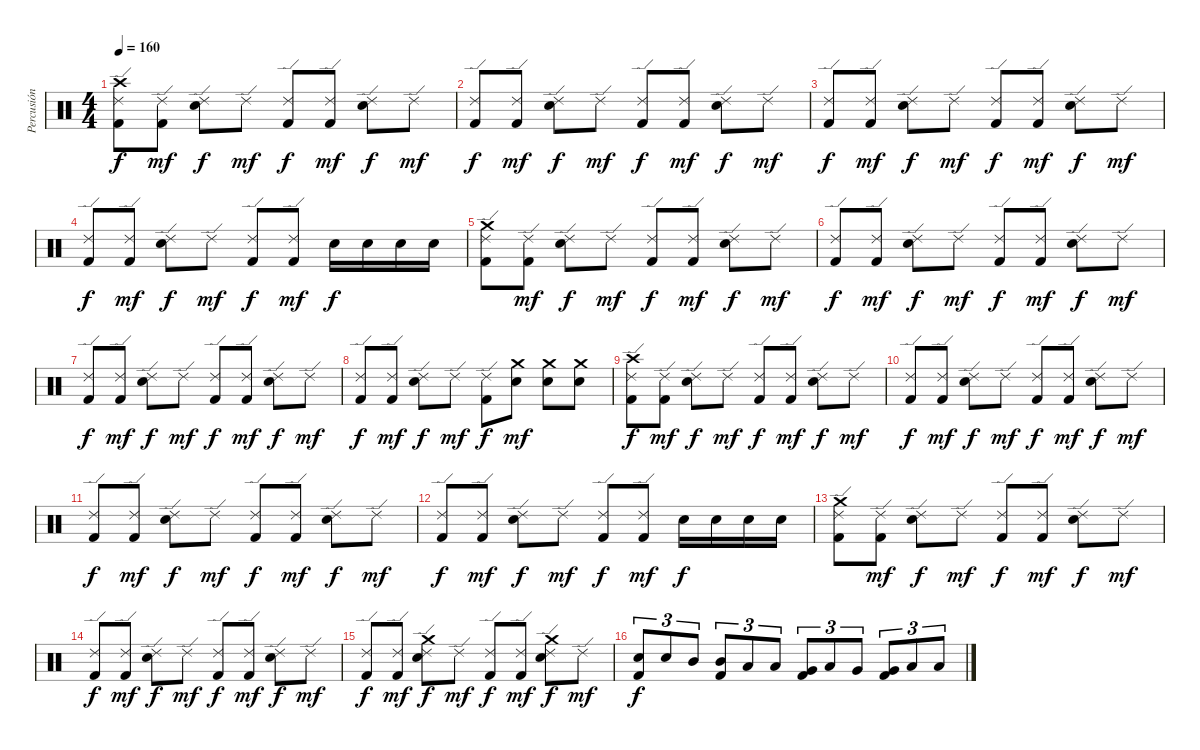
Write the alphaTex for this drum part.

\track ("Percusión" "Percusión") {instrument percussion}
\staff {score}
\articulation defaults
\ts (4 4)
\tempo 160
\clef neutral
\ks c
("Crash high (hit)" "Ride (edge) 2" "Kick (hit) 2").8{dy f} ("Ride (edge) 2" "Kick (hit) 2").8{dy mf} ("Ride (edge) 2" "Electric Snare (hit)").8{dy f} "Ride (edge) 2".8{dy mf} ("Ride (edge) 2" "Kick (hit) 2").8{dy f} ("Ride (edge) 2" "Kick (hit) 2").8{dy mf} ("Ride (edge) 2" "Electric Snare (hit)").8{dy f} "Ride (edge) 2".8{dy mf} |
("Ride (edge) 2" "Kick (hit) 2").8{dy f} ("Ride (edge) 2" "Kick (hit) 2").8{dy mf} ("Ride (edge) 2" "Electric Snare (hit)").8{dy f} "Ride (edge) 2".8{dy mf} ("Ride (edge) 2" "Kick (hit) 2").8{dy f} ("Ride (edge) 2" "Kick (hit) 2").8{dy mf} ("Ride (edge) 2" "Electric Snare (hit)").8{dy f} "Ride (edge) 2".8{dy mf} |
("Ride (edge) 2" "Kick (hit) 2").8{dy f} ("Ride (edge) 2" "Kick (hit) 2").8{dy mf} ("Ride (edge) 2" "Electric Snare (hit)").8{dy f} "Ride (edge) 2".8{dy mf} ("Ride (edge) 2" "Kick (hit) 2").8{dy f} ("Ride (edge) 2" "Kick (hit) 2").8{dy mf} ("Ride (edge) 2" "Electric Snare (hit)").8{dy f} "Ride (edge) 2".8{dy mf} |
("Ride (edge) 2" "Kick (hit) 2").8{dy f} ("Ride (edge) 2" "Kick (hit) 2").8{dy mf} ("Ride (edge) 2" "Electric Snare (hit)").8{dy f} "Ride (edge) 2".8{dy mf} ("Ride (edge) 2" "Kick (hit) 2").8{dy f} ("Ride (edge) 2" "Kick (hit) 2").8{dy mf} "Electric Snare (hit)".16{dy f} "Electric Snare (hit)".16 "Electric Snare (hit)".16 "Electric Snare (hit)".16 |
("Crash medium (hit)" "Ride (edge) 2" "Kick (hit) 2").8 ("Ride (edge) 2" "Kick (hit) 2").8{dy mf} ("Ride (edge) 2" "Electric Snare (hit)").8{dy f} "Ride (edge) 2".8{dy mf} ("Ride (edge) 2" "Kick (hit) 2").8{dy f} ("Ride (edge) 2" "Kick (hit) 2").8{dy mf} ("Ride (edge) 2" "Electric Snare (hit)").8{dy f} "Ride (edge) 2".8{dy mf} |
("Ride (edge) 2" "Kick (hit) 2").8{dy f} ("Ride (edge) 2" "Kick (hit) 2").8{dy mf} ("Ride (edge) 2" "Electric Snare (hit)").8{dy f} "Ride (edge) 2".8{dy mf} ("Ride (edge) 2" "Kick (hit) 2").8{dy f} ("Ride (edge) 2" "Kick (hit) 2").8{dy mf} ("Ride (edge) 2" "Electric Snare (hit)").8{dy f} "Ride (edge) 2".8{dy mf} |
("Ride (edge) 2" "Kick (hit) 2").8{dy f} ("Ride (edge) 2" "Kick (hit) 2").8{dy mf} ("Ride (edge) 2" "Electric Snare (hit)").8{dy f} "Ride (edge) 2".8{dy mf} ("Ride (edge) 2" "Kick (hit) 2").8{dy f} ("Ride (edge) 2" "Kick (hit) 2").8{dy mf} ("Ride (edge) 2" "Electric Snare (hit)").8{dy f} "Ride (edge) 2".8{dy mf} |
("Ride (edge) 2" "Kick (hit) 2").8{dy f} ("Ride (edge) 2" "Kick (hit) 2").8{dy mf} ("Ride (edge) 2" "Electric Snare (hit)").8{dy f} "Ride (edge) 2".8{dy mf} ("Ride (edge) 2" "Kick (hit) 2").8{dy f} ("Crash medium (hit)" "Electric Snare (hit)").8{dy mf} ("Crash medium (hit)" "Electric Snare (hit)").8 ("Crash medium (hit)" "Electric Snare (hit)").8 |
("Crash high (hit)" "Ride (edge) 2" "Kick (hit) 2").8{dy f} ("Ride (edge) 2" "Kick (hit) 2").8{dy mf} ("Ride (edge) 2" "Electric Snare (hit)").8{dy f} "Ride (edge) 2".8{dy mf} ("Ride (edge) 2" "Kick (hit) 2").8{dy f} ("Ride (edge) 2" "Kick (hit) 2").8{dy mf} ("Ride (edge) 2" "Electric Snare (hit)").8{dy f} "Ride (edge) 2".8{dy mf} |
("Ride (edge) 2" "Kick (hit) 2").8{dy f} ("Ride (edge) 2" "Kick (hit) 2").8{dy mf} ("Ride (edge) 2" "Electric Snare (hit)").8{dy f} "Ride (edge) 2".8{dy mf} ("Ride (edge) 2" "Kick (hit) 2").8{dy f} ("Ride (edge) 2" "Kick (hit) 2").8{dy mf} ("Ride (edge) 2" "Electric Snare (hit)").8{dy f} "Ride (edge) 2".8{dy mf} |
("Ride (edge) 2" "Kick (hit) 2").8{dy f} ("Ride (edge) 2" "Kick (hit) 2").8{dy mf} ("Ride (edge) 2" "Electric Snare (hit)").8{dy f} "Ride (edge) 2".8{dy mf} ("Ride (edge) 2" "Kick (hit) 2").8{dy f} ("Ride (edge) 2" "Kick (hit) 2").8{dy mf} ("Ride (edge) 2" "Electric Snare (hit)").8{dy f} "Ride (edge) 2".8{dy mf} |
("Ride (edge) 2" "Kick (hit) 2").8{dy f} ("Ride (edge) 2" "Kick (hit) 2").8{dy mf} ("Ride (edge) 2" "Electric Snare (hit)").8{dy f} "Ride (edge) 2".8{dy mf} ("Ride (edge) 2" "Kick (hit) 2").8{dy f} ("Ride (edge) 2" "Kick (hit) 2").8{dy mf} "Electric Snare (hit)".16{dy f} "Electric Snare (hit)".16 "Electric Snare (hit)".16 "Electric Snare (hit)".16 |
("Crash medium (hit)" "Ride (edge) 2" "Kick (hit) 2").8 ("Ride (edge) 2" "Kick (hit) 2").8{dy mf} ("Ride (edge) 2" "Electric Snare (hit)").8{dy f} "Ride (edge) 2".8{dy mf} ("Ride (edge) 2" "Kick (hit) 2").8{dy f} ("Ride (edge) 2" "Kick (hit) 2").8{dy mf} ("Ride (edge) 2" "Electric Snare (hit)").8{dy f} "Ride (edge) 2".8{dy mf} |
("Ride (edge) 2" "Kick (hit) 2").8{dy f} ("Ride (edge) 2" "Kick (hit) 2").8{dy mf} ("Ride (edge) 2" "Electric Snare (hit)").8{dy f} "Ride (edge) 2".8{dy mf} ("Ride (edge) 2" "Kick (hit) 2").8{dy f} ("Ride (edge) 2" "Kick (hit) 2").8{dy mf} ("Ride (edge) 2" "Electric Snare (hit)").8{dy f} "Ride (edge) 2".8{dy mf} |
("Ride (edge) 2" "Kick (hit) 2").8{dy f} ("Ride (edge) 2" "Kick (hit) 2").8{dy mf} ("Crash medium (hit)" "Ride (edge) 2" "Electric Snare (hit)").8{dy f} "Ride (edge) 2".8{dy mf} ("Ride (edge) 2" "Kick (hit) 2").8{dy f} ("Ride (edge) 2" "Kick (hit) 2").8{dy mf} ("Crash medium (hit)" "Ride (edge) 2" "Electric Snare (hit)").8{dy f} "Ride (edge) 2".8{dy mf} |
("Electric Snare (hit)" "Kick (hit) 2").8{tu (3 2) dy f} "Electric Snare (hit)".8{tu (3 2)} "Mid Tom (hit)".8{tu (3 2)} ("Mid Tom (hit)" "Kick (hit) 2").8{tu (3 2)} "Low Tom (hit)".8{tu (3 2)} "Low Tom (hit)".8{tu (3 2)} ("Very Low Tom (hit)" "Kick (hit) 2").8{tu (3 2)} "Low Tom (hit)".8{tu (3 2)} "Very Low Tom (hit)".8{tu (3 2)} ("Very Low Tom (hit)" "Kick (hit) 2").8{tu (3 2)} "Low Floor Tom (hit)".8{tu (3 2)} "Low Floor Tom (hit)".8{tu (3 2)}
